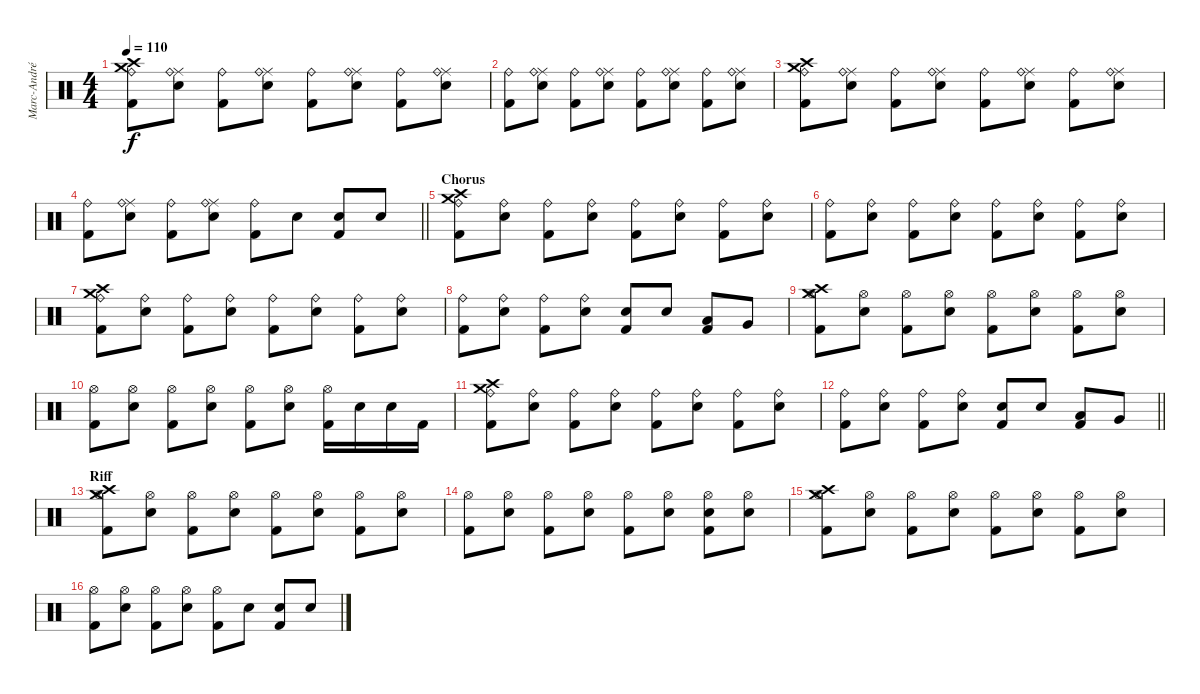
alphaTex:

\track ("Marc-André Barabé" "Marc-André") {instrument percussion}
\staff {score}
\articulation defaults
\ts (4 4)
\tempo 110
\clef neutral
\ks c
("Crash high (hit)" "Crash medium (hit)" "Ride (bell)" "Kick (hit) 2"{tr (2 32)}).8{dy f} ("Ride (middle)" "Ride (bell)" "Electric Snare (hit)").8 ("Ride (bell)" "Kick (hit) 2"{tr (2 32)}).8 ("Ride (middle)" "Ride (bell)" "Electric Snare (hit)").8 ("Ride (bell)" "Kick (hit) 2"{tr (2 32)}).8 ("Ride (middle)" "Ride (bell)" "Electric Snare (hit)").8 ("Ride (bell)" "Kick (hit) 2"{tr (2 32)}).8 ("Ride (middle)" "Ride (bell)" "Electric Snare (hit)").8 |
("Ride (bell)" "Kick (hit) 2"{tr (2 32)}).8 ("Ride (middle)" "Ride (bell)" "Electric Snare (hit)").8 ("Ride (bell)" "Kick (hit) 2"{tr (2 32)}).8 ("Ride (middle)" "Ride (bell)" "Electric Snare (hit)").8 ("Ride (bell)" "Kick (hit) 2"{tr (2 32)}).8 ("Ride (middle)" "Ride (bell)" "Electric Snare (hit)").8 ("Ride (bell)" "Kick (hit) 2"{tr (2 32)}).8 ("Ride (middle)" "Ride (bell)" "Electric Snare (hit)").8 |
("Crash high (hit)" "Crash medium (hit)" "Ride (bell)" "Kick (hit) 2"{tr (2 32)}).8 ("Ride (middle)" "Ride (bell)" "Electric Snare (hit)").8 ("Ride (bell)" "Kick (hit) 2"{tr (2 32)}).8 ("Ride (middle)" "Ride (bell)" "Electric Snare (hit)").8 ("Ride (bell)" "Kick (hit) 2"{tr (2 32)}).8 ("Ride (middle)" "Ride (bell)" "Electric Snare (hit)").8 ("Ride (bell)" "Kick (hit) 2"{tr (2 32)}).8 ("Ride (middle)" "Ride (bell)" "Electric Snare (hit)").8 |
\barLineRight lightlight
("Ride (bell)" "Kick (hit) 2"{tr (2 32)}).8 ("Ride (middle)" "Ride (bell)" "Electric Snare (hit)").8 ("Ride (bell)" "Kick (hit) 2"{tr (2 32)}).8 ("Ride (middle)" "Ride (bell)" "Electric Snare (hit)").8 ("Ride (bell)" "Kick (hit) 2"{tr (2 32)}).8 "Electric Snare (hit)"{tr (4 64)}.8 ("Electric Snare (hit)" "Kick (hit) 2"{tr (2 32)}).8 "Electric Snare (hit)"{tr (4 64)}.8 |
\section ("" "Chorus")
("Crash high (hit)" "Crash medium (hit)" "Ride (bell)" "Kick (hit) 2"{tr (2 32)}).8 ("Ride (bell)" "Electric Snare (hit)").8 ("Ride (bell)" "Kick (hit) 2"{tr (2 32)}).8 ("Ride (bell)" "Electric Snare (hit)").8 ("Ride (bell)" "Kick (hit) 2"{tr (2 32)}).8 ("Ride (bell)" "Electric Snare (hit)").8 ("Ride (bell)" "Kick (hit) 2"{tr (2 32)}).8 ("Ride (bell)" "Electric Snare (hit)").8 |
("Ride (bell)" "Kick (hit) 2"{tr (2 32)}).8 ("Ride (bell)" "Electric Snare (hit)").8 ("Ride (bell)" "Kick (hit) 2"{tr (2 32)}).8 ("Ride (bell)" "Electric Snare (hit)").8 ("Ride (bell)" "Kick (hit) 2"{tr (2 32)}).8 ("Ride (bell)" "Electric Snare (hit)").8 ("Ride (bell)" "Kick (hit) 2"{tr (2 32)}).8 ("Ride (bell)" "Electric Snare (hit)").8 |
("Crash high (hit)" "Crash medium (hit)" "Ride (bell)" "Kick (hit) 2"{tr (2 32)}).8 ("Ride (bell)" "Electric Snare (hit)").8 ("Ride (bell)" "Kick (hit) 2"{tr (2 32)}).8 ("Ride (bell)" "Electric Snare (hit)").8 ("Ride (bell)" "Kick (hit) 2"{tr (2 32)}).8 ("Ride (bell)" "Electric Snare (hit)").8 ("Ride (bell)" "Kick (hit) 2"{tr (2 32)}).8 ("Ride (bell)" "Electric Snare (hit)").8 |
("Ride (bell)" "Kick (hit) 2"{tr (2 32)}).8 ("Ride (bell)" "Electric Snare (hit)").8 ("Ride (bell)" "Kick (hit) 2"{tr (2 32)}).8 ("Ride (bell)" "Electric Snare (hit)").8 ("Electric Snare (hit)"{tr (40 32)} "Kick (hit) 2"{tr (2 32)}).8 "Electric Snare (hit)"{tr (40 32)}.8 ("Low Tom (hit)"{tr (45 32)} "Kick (hit) 2"{tr (2 32)}).8 "Very Low Tom (hit)"{tr (43 32)}.8 |
("Crash high (hit)" "Crash medium (hit)" "Hi-Hat (open)" "Kick (hit) 2"{tr (2 32)}).8 ("Hi-Hat (open)" "Electric Snare (hit)").8 ("Hi-Hat (open)" "Kick (hit) 2"{tr (2 32)}).8 ("Hi-Hat (open)" "Electric Snare (hit)").8 ("Hi-Hat (open)" "Kick (hit) 2"{tr (2 32)}).8 ("Hi-Hat (open)" "Electric Snare (hit)").8 ("Hi-Hat (open)" "Kick (hit) 2"{tr (2 32)}).8 ("Hi-Hat (open)" "Electric Snare (hit)").8 |
("Hi-Hat (open)" "Kick (hit) 2"{tr (2 32)}).8 ("Hi-Hat (open)" "Electric Snare (hit)").8 ("Hi-Hat (open)" "Kick (hit) 2"{tr (2 32)}).8 ("Hi-Hat (open)" "Electric Snare (hit)").8 ("Hi-Hat (open)" "Kick (hit) 2"{tr (2 32)}).8 ("Hi-Hat (open)" "Electric Snare (hit)").8 ("Hi-Hat (open)" "Kick (hit) 2"{tr (2 32)}).16 "Electric Snare (hit)".16 "Electric Snare (hit)".16 "Kick (hit) 2".16 |
("Crash high (hit)" "Crash medium (hit)" "Ride (bell)" "Kick (hit) 2"{tr (2 32)}).8 ("Ride (bell)" "Electric Snare (hit)").8 ("Ride (bell)" "Kick (hit) 2"{tr (2 32)}).8 ("Ride (bell)" "Electric Snare (hit)").8 ("Ride (bell)" "Kick (hit) 2"{tr (2 32)}).8 ("Ride (bell)" "Electric Snare (hit)").8 ("Ride (bell)" "Kick (hit) 2"{tr (2 32)}).8 ("Ride (bell)" "Electric Snare (hit)").8 |
\barLineRight lightlight
("Ride (bell)" "Kick (hit) 2"{tr (2 32)}).8 ("Ride (bell)" "Electric Snare (hit)").8 ("Ride (bell)" "Kick (hit) 2"{tr (2 32)}).8 ("Ride (bell)" "Electric Snare (hit)").8 ("Electric Snare (hit)"{tr (40 32)} "Kick (hit) 2"{tr (2 32)}).8 "Electric Snare (hit)"{tr (40 32)}.8 ("Low Tom (hit)"{tr (45 32)} "Kick (hit) 2"{tr (2 32)}).8 "Very Low Tom (hit)"{tr (43 32)}.8 |
\section ("" "Riff")
("Crash high (hit)" "Crash medium (hit)" "Hi-Hat (open)" "Kick (hit) 2"{tr (2 32)}).8 ("Hi-Hat (open)" "Electric Snare (hit)").8 ("Hi-Hat (open)" "Kick (hit) 2"{tr (2 32)}).8 ("Hi-Hat (open)" "Electric Snare (hit)").8 ("Hi-Hat (open)" "Kick (hit) 2"{tr (2 32)}).8 ("Hi-Hat (open)" "Electric Snare (hit)").8 ("Hi-Hat (open)" "Kick (hit) 2"{tr (2 32)}).8 ("Hi-Hat (open)" "Electric Snare (hit)").8 |
("Hi-Hat (open)" "Kick (hit) 2"{tr (2 32)}).8 ("Hi-Hat (open)" "Electric Snare (hit)").8 ("Hi-Hat (open)" "Kick (hit) 2"{tr (2 32)}).8 ("Hi-Hat (open)" "Electric Snare (hit)").8 ("Hi-Hat (open)" "Kick (hit) 2"{tr (2 32)}).8 ("Hi-Hat (open)" "Electric Snare (hit)").8 ("Hi-Hat (open)" "Electric Snare (hit)" "Kick (hit) 2"{tr (2 32)}).8 ("Hi-Hat (open)" "Electric Snare (hit)").8 |
("Crash high (hit)" "Crash medium (hit)" "Hi-Hat (open)" "Kick (hit) 2"{tr (2 32)}).8 ("Hi-Hat (open)" "Electric Snare (hit)").8 ("Hi-Hat (open)" "Kick (hit) 2"{tr (2 32)}).8 ("Hi-Hat (open)" "Electric Snare (hit)").8 ("Hi-Hat (open)" "Kick (hit) 2"{tr (2 32)}).8 ("Hi-Hat (open)" "Electric Snare (hit)").8 ("Hi-Hat (open)" "Kick (hit) 2"{tr (2 32)}).8 ("Hi-Hat (open)" "Electric Snare (hit)").8 |
("Hi-Hat (open)" "Kick (hit) 2"{tr (2 32)}).8 ("Hi-Hat (open)" "Electric Snare (hit)").8 ("Hi-Hat (open)" "Kick (hit) 2"{tr (2 32)}).8 ("Hi-Hat (open)" "Electric Snare (hit)").8 ("Hi-Hat (open)" "Kick (hit) 2"{tr (2 32)}).8 "Electric Snare (hit)"{tr (40 32)}.8 ("Electric Snare (hit)"{tr (40 32)} "Kick (hit) 2"{tr (2 32)}).8 "Electric Snare (hit)"{tr (40 32)}.8
